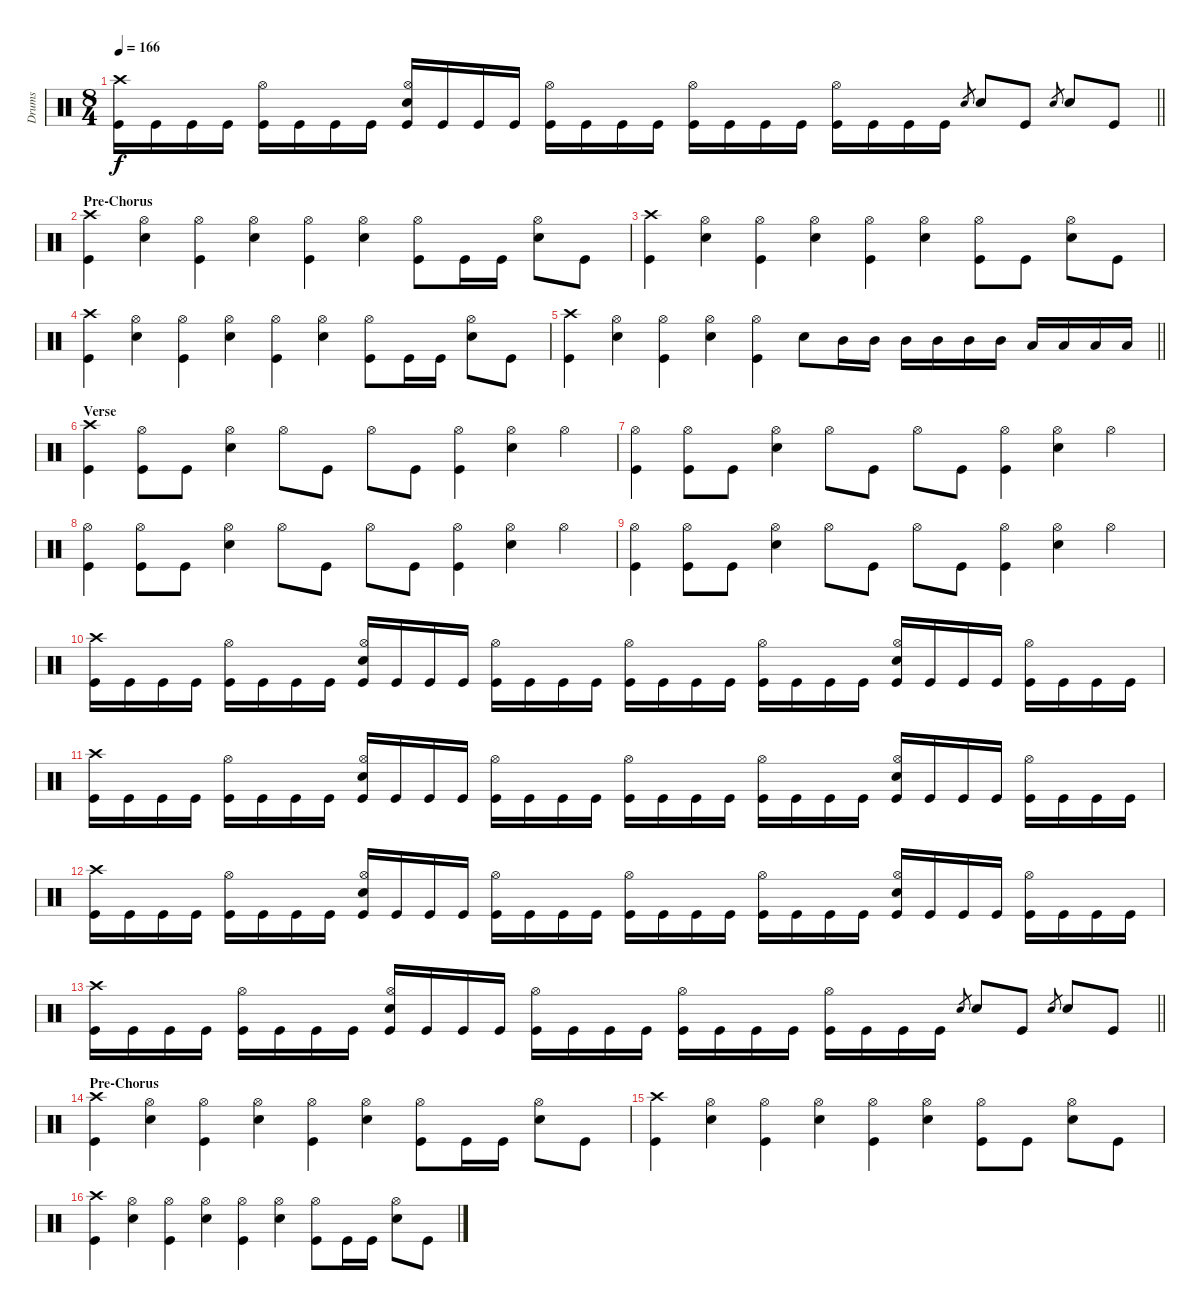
\track ("Drums" "Drums") {instrument percussion}
\staff {score}
\articulation defaults
\ts (8 4)
\tempo 166
\clef neutral
\barLineRight lightlight
\ks c
("Crash high (hit)" "Kick (hit)").16{dy f} "Kick (hit)".16 "Kick (hit)".16 "Kick (hit)".16 ("Hi-Hat (open)" "Kick (hit)").16 "Kick (hit)".16 "Kick (hit)".16 "Kick (hit)".16 ("Hi-Hat (open)" "Snare (hit) 2" "Kick (hit)").16 "Kick (hit)".16 "Kick (hit)".16 "Kick (hit)".16 ("Hi-Hat (open)" "Kick (hit)").16 "Kick (hit)".16 "Kick (hit)".16 "Kick (hit)".16 ("Hi-Hat (open)" "Kick (hit)").16 "Kick (hit)".16 "Kick (hit)".16 "Kick (hit)".16 ("Hi-Hat (open)" "Kick (hit)").16 "Kick (hit)".16 "Kick (hit)".16 "Kick (hit)".16 "Snare (hit) 2".8{gr} "Snare (hit) 2".8 "Kick (hit)".8 "Snare (hit) 2".8{gr} "Snare (hit) 2".8 "Kick (hit)".8 |
\section ("" "Pre-Chorus")
("Crash high (hit)" "Kick (hit)").4 ("Hi-Hat (open)" "Snare (hit) 2").4 ("Hi-Hat (open)" "Kick (hit)").4 ("Hi-Hat (open)" "Snare (hit) 2").4 ("Hi-Hat (open)" "Kick (hit)").4 ("Hi-Hat (open)" "Snare (hit) 2").4 ("Hi-Hat (open)" "Kick (hit)").8 "Kick (hit)".16 "Kick (hit)".16 ("Hi-Hat (open)" "Snare (hit) 2").8 "Kick (hit)".8 |
("Crash high (hit)" "Kick (hit)").4 ("Hi-Hat (open)" "Snare (hit) 2").4 ("Hi-Hat (open)" "Kick (hit)").4 ("Hi-Hat (open)" "Snare (hit) 2").4 ("Hi-Hat (open)" "Kick (hit)").4 ("Hi-Hat (open)" "Snare (hit) 2").4 ("Hi-Hat (open)" "Kick (hit)").8 "Kick (hit)".8 ("Hi-Hat (open)" "Snare (hit) 2").8 "Kick (hit)".8 |
("Crash high (hit)" "Kick (hit)").4 ("Hi-Hat (open)" "Snare (hit) 2").4 ("Hi-Hat (open)" "Kick (hit)").4 ("Hi-Hat (open)" "Snare (hit) 2").4 ("Hi-Hat (open)" "Kick (hit)").4 ("Hi-Hat (open)" "Snare (hit) 2").4 ("Hi-Hat (open)" "Kick (hit)").8 "Kick (hit)".16 "Kick (hit)".16 ("Hi-Hat (open)" "Snare (hit) 2").8 "Kick (hit)".8 |
\barLineRight lightlight
("Crash high (hit)" "Kick (hit)").4 ("Hi-Hat (open)" "Snare (hit) 2").4 ("Hi-Hat (open)" "Kick (hit)").4 ("Hi-Hat (open)" "Snare (hit) 2").4 ("Hi-Hat (open)" "Kick (hit)").4 "Snare (hit) 2".8 "Mid Tom (hit)".16 "Mid Tom (hit)".16 "Mid Tom (hit)".16 "Mid Tom (hit)".16 "Mid Tom (hit)".16 "Mid Tom (hit)".16 "Low Tom (hit)".16 "Low Tom (hit)".16 "Low Tom (hit)".16 "Low Tom (hit)".16 |
\section ("" "Verse")
("Crash high (hit)" "Kick (hit)").4 ("Hi-Hat (open)" "Kick (hit)").8 "Kick (hit)".8 ("Hi-Hat (open)" "Snare (hit) 2").4 "Hi-Hat (open)".8 "Kick (hit)".8 "Hi-Hat (open)".8 "Kick (hit)".8 ("Hi-Hat (open)" "Kick (hit)").4 ("Hi-Hat (open)" "Snare (hit) 2").4 "Hi-Hat (open)".4 |
("Hi-Hat (open)" "Kick (hit)").4 ("Hi-Hat (open)" "Kick (hit)").8 "Kick (hit)".8 ("Hi-Hat (open)" "Snare (hit) 2").4 "Hi-Hat (open)".8 "Kick (hit)".8 "Hi-Hat (open)".8 "Kick (hit)".8 ("Hi-Hat (open)" "Kick (hit)").4 ("Hi-Hat (open)" "Snare (hit) 2").4 "Hi-Hat (open)".4 |
("Hi-Hat (open)" "Kick (hit)").4 ("Hi-Hat (open)" "Kick (hit)").8 "Kick (hit)".8 ("Hi-Hat (open)" "Snare (hit) 2").4 "Hi-Hat (open)".8 "Kick (hit)".8 "Hi-Hat (open)".8 "Kick (hit)".8 ("Hi-Hat (open)" "Kick (hit)").4 ("Hi-Hat (open)" "Snare (hit) 2").4 "Hi-Hat (open)".4 |
("Hi-Hat (open)" "Kick (hit)").4 ("Hi-Hat (open)" "Kick (hit)").8 "Kick (hit)".8 ("Hi-Hat (open)" "Snare (hit) 2").4 "Hi-Hat (open)".8 "Kick (hit)".8 "Hi-Hat (open)".8 "Kick (hit)".8 ("Hi-Hat (open)" "Kick (hit)").4 ("Hi-Hat (open)" "Snare (hit) 2").4 "Hi-Hat (open)".4 |
("Crash high (hit)" "Kick (hit)").16 "Kick (hit)".16 "Kick (hit)".16 "Kick (hit)".16 ("Hi-Hat (open)" "Kick (hit)").16 "Kick (hit)".16 "Kick (hit)".16 "Kick (hit)".16 ("Hi-Hat (open)" "Snare (hit) 2" "Kick (hit)").16 "Kick (hit)".16 "Kick (hit)".16 "Kick (hit)".16 ("Hi-Hat (open)" "Kick (hit)").16 "Kick (hit)".16 "Kick (hit)".16 "Kick (hit)".16 ("Hi-Hat (open)" "Kick (hit)").16 "Kick (hit)".16 "Kick (hit)".16 "Kick (hit)".16 ("Hi-Hat (open)" "Kick (hit)").16 "Kick (hit)".16 "Kick (hit)".16 "Kick (hit)".16 ("Hi-Hat (open)" "Snare (hit) 2" "Kick (hit)").16 "Kick (hit)".16 "Kick (hit)".16 "Kick (hit)".16 ("Hi-Hat (open)" "Kick (hit)").16 "Kick (hit)".16 "Kick (hit)".16 "Kick (hit)".16 |
("Crash high (hit)" "Kick (hit)").16 "Kick (hit)".16 "Kick (hit)".16 "Kick (hit)".16 ("Hi-Hat (open)" "Kick (hit)").16 "Kick (hit)".16 "Kick (hit)".16 "Kick (hit)".16 ("Hi-Hat (open)" "Snare (hit) 2" "Kick (hit)").16 "Kick (hit)".16 "Kick (hit)".16 "Kick (hit)".16 ("Hi-Hat (open)" "Kick (hit)").16 "Kick (hit)".16 "Kick (hit)".16 "Kick (hit)".16 ("Hi-Hat (open)" "Kick (hit)").16 "Kick (hit)".16 "Kick (hit)".16 "Kick (hit)".16 ("Hi-Hat (open)" "Kick (hit)").16 "Kick (hit)".16 "Kick (hit)".16 "Kick (hit)".16 ("Hi-Hat (open)" "Snare (hit) 2" "Kick (hit)").16 "Kick (hit)".16 "Kick (hit)".16 "Kick (hit)".16 ("Hi-Hat (open)" "Kick (hit)").16 "Kick (hit)".16 "Kick (hit)".16 "Kick (hit)".16 |
("Crash high (hit)" "Kick (hit)").16 "Kick (hit)".16 "Kick (hit)".16 "Kick (hit)".16 ("Hi-Hat (open)" "Kick (hit)").16 "Kick (hit)".16 "Kick (hit)".16 "Kick (hit)".16 ("Hi-Hat (open)" "Snare (hit) 2" "Kick (hit)").16 "Kick (hit)".16 "Kick (hit)".16 "Kick (hit)".16 ("Hi-Hat (open)" "Kick (hit)").16 "Kick (hit)".16 "Kick (hit)".16 "Kick (hit)".16 ("Hi-Hat (open)" "Kick (hit)").16 "Kick (hit)".16 "Kick (hit)".16 "Kick (hit)".16 ("Hi-Hat (open)" "Kick (hit)").16 "Kick (hit)".16 "Kick (hit)".16 "Kick (hit)".16 ("Hi-Hat (open)" "Snare (hit) 2" "Kick (hit)").16 "Kick (hit)".16 "Kick (hit)".16 "Kick (hit)".16 ("Hi-Hat (open)" "Kick (hit)").16 "Kick (hit)".16 "Kick (hit)".16 "Kick (hit)".16 |
\barLineRight lightlight
("Crash high (hit)" "Kick (hit)").16 "Kick (hit)".16 "Kick (hit)".16 "Kick (hit)".16 ("Hi-Hat (open)" "Kick (hit)").16 "Kick (hit)".16 "Kick (hit)".16 "Kick (hit)".16 ("Hi-Hat (open)" "Snare (hit) 2" "Kick (hit)").16 "Kick (hit)".16 "Kick (hit)".16 "Kick (hit)".16 ("Hi-Hat (open)" "Kick (hit)").16 "Kick (hit)".16 "Kick (hit)".16 "Kick (hit)".16 ("Hi-Hat (open)" "Kick (hit)").16 "Kick (hit)".16 "Kick (hit)".16 "Kick (hit)".16 ("Hi-Hat (open)" "Kick (hit)").16 "Kick (hit)".16 "Kick (hit)".16 "Kick (hit)".16 "Snare (hit) 2".8{gr} "Snare (hit) 2".8 "Kick (hit)".8 "Snare (hit) 2".8{gr} "Snare (hit) 2".8 "Kick (hit)".8 |
\section ("" "Pre-Chorus")
("Crash high (hit)" "Kick (hit)").4 ("Hi-Hat (open)" "Snare (hit) 2").4 ("Hi-Hat (open)" "Kick (hit)").4 ("Hi-Hat (open)" "Snare (hit) 2").4 ("Hi-Hat (open)" "Kick (hit)").4 ("Hi-Hat (open)" "Snare (hit) 2").4 ("Hi-Hat (open)" "Kick (hit)").8 "Kick (hit)".16 "Kick (hit)".16 ("Hi-Hat (open)" "Snare (hit) 2").8 "Kick (hit)".8 |
("Crash high (hit)" "Kick (hit)").4 ("Hi-Hat (open)" "Snare (hit) 2").4 ("Hi-Hat (open)" "Kick (hit)").4 ("Hi-Hat (open)" "Snare (hit) 2").4 ("Hi-Hat (open)" "Kick (hit)").4 ("Hi-Hat (open)" "Snare (hit) 2").4 ("Hi-Hat (open)" "Kick (hit)").8 "Kick (hit)".8 ("Hi-Hat (open)" "Snare (hit) 2").8 "Kick (hit)".8 |
("Crash high (hit)" "Kick (hit)").4 ("Hi-Hat (open)" "Snare (hit) 2").4 ("Hi-Hat (open)" "Kick (hit)").4 ("Hi-Hat (open)" "Snare (hit) 2").4 ("Hi-Hat (open)" "Kick (hit)").4 ("Hi-Hat (open)" "Snare (hit) 2").4 ("Hi-Hat (open)" "Kick (hit)").8 "Kick (hit)".16 "Kick (hit)".16 ("Hi-Hat (open)" "Snare (hit) 2").8 "Kick (hit)".8
